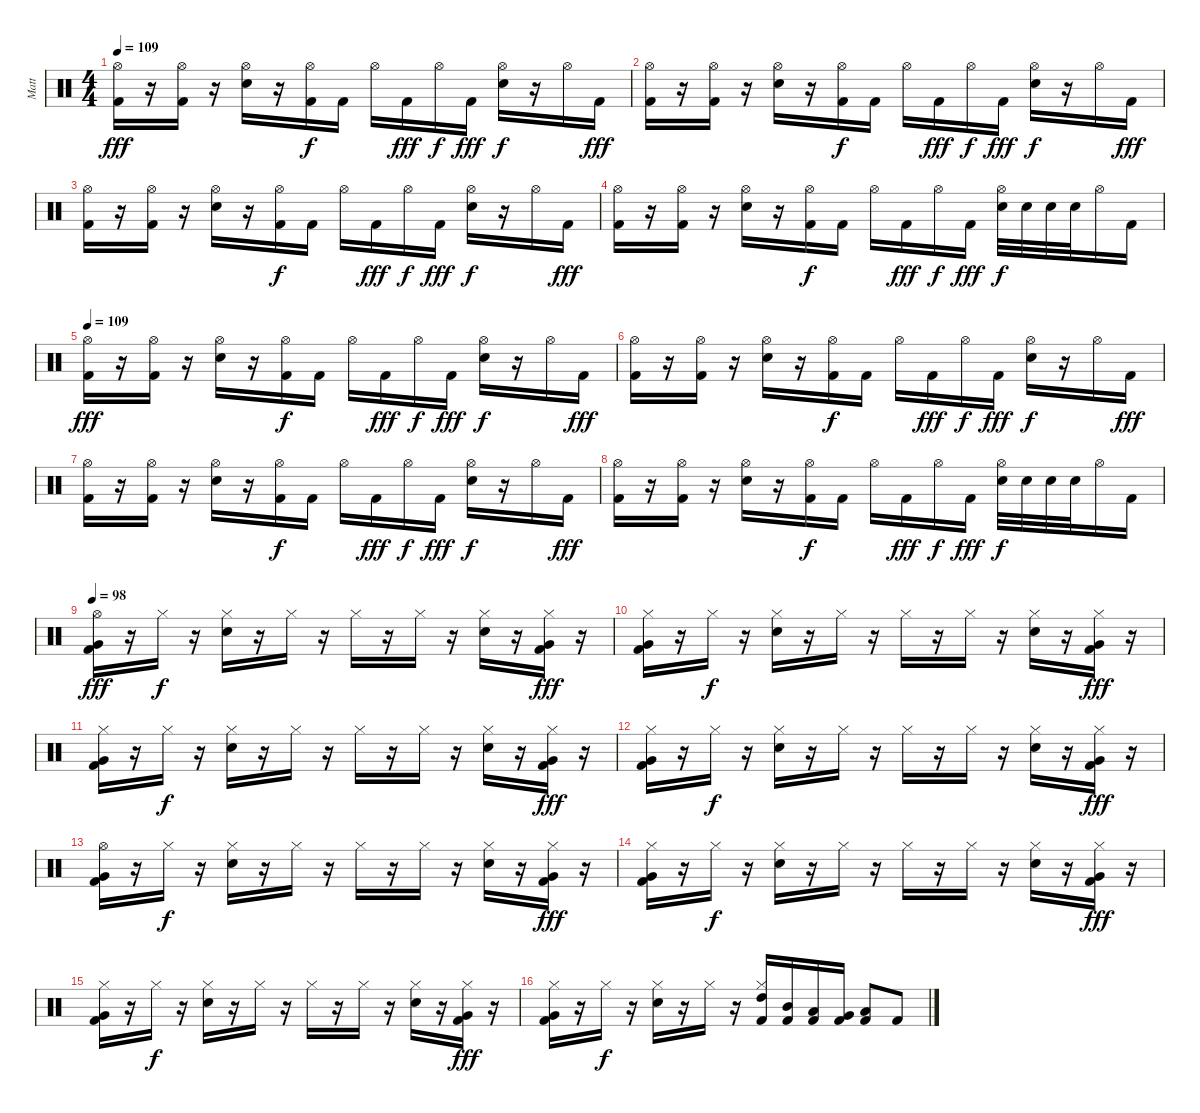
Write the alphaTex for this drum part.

\track ("Matt" "Matt") {instrument percussion}
\staff {score}
\articulation defaults
\ts (4 4)
\tempo 109
\clef neutral
\ks c
("Hi-Hat (open)" "Kick (hit) 2").16{dy fff} r.16 ("Hi-Hat (open)" "Kick (hit) 2").16 r.16 ("Hi-Hat (open)" "Snare (hit) 2").16 r.16 ("Hi-Hat (open)" "Kick (hit) 2").16{dy f} "Kick (hit) 2".16 "Hi-Hat (open)".16 "Kick (hit) 2".16{dy fff} "Hi-Hat (open)".16{dy f} "Kick (hit) 2".16{dy fff} ("Hi-Hat (open)" "Snare (hit) 2").16{dy f} r.16 "Hi-Hat (open)".16 "Kick (hit) 2".16{dy fff} |
("Hi-Hat (open)" "Kick (hit) 2").16 r.16 ("Hi-Hat (open)" "Kick (hit) 2").16 r.16 ("Hi-Hat (open)" "Snare (hit) 2").16 r.16 ("Hi-Hat (open)" "Kick (hit) 2").16{dy f} "Kick (hit) 2".16 "Hi-Hat (open)".16 "Kick (hit) 2".16{dy fff} "Hi-Hat (open)".16{dy f} "Kick (hit) 2".16{dy fff} ("Hi-Hat (open)" "Snare (hit) 2").16{dy f} r.16 "Hi-Hat (open)".16 "Kick (hit) 2".16{dy fff} |
("Hi-Hat (open)" "Kick (hit) 2").16 r.16 ("Hi-Hat (open)" "Kick (hit) 2").16 r.16 ("Hi-Hat (open)" "Snare (hit) 2").16 r.16 ("Hi-Hat (open)" "Kick (hit) 2").16{dy f} "Kick (hit) 2".16 "Hi-Hat (open)".16 "Kick (hit) 2".16{dy fff} "Hi-Hat (open)".16{dy f} "Kick (hit) 2".16{dy fff} ("Hi-Hat (open)" "Snare (hit) 2").16{dy f} r.16 "Hi-Hat (open)".16 "Kick (hit) 2".16{dy fff} |
("Hi-Hat (open)" "Kick (hit) 2").16 r.16 ("Hi-Hat (open)" "Kick (hit) 2").16 r.16 ("Hi-Hat (open)" "Snare (hit) 2").16 r.16 ("Hi-Hat (open)" "Kick (hit) 2").16{dy f} "Kick (hit) 2".16 "Hi-Hat (open)".16 "Kick (hit) 2".16{dy fff} "Hi-Hat (open)".16{dy f} "Kick (hit) 2".16{dy fff} ("Hi-Hat (open)" "Snare (hit) 2").32{dy f} "Snare (hit) 2".32 "Snare (hit) 2".32 "Snare (hit) 2".32 "Hi-Hat (open)".16 "Kick (hit) 2".16 |
\tempo 109
("Hi-Hat (open)" "Kick (hit) 2").16{dy fff} r.16 ("Hi-Hat (open)" "Kick (hit) 2").16 r.16 ("Hi-Hat (open)" "Snare (hit) 2").16 r.16 ("Hi-Hat (open)" "Kick (hit) 2").16{dy f} "Kick (hit) 2".16 "Hi-Hat (open)".16 "Kick (hit) 2".16{dy fff} "Hi-Hat (open)".16{dy f} "Kick (hit) 2".16{dy fff} ("Hi-Hat (open)" "Snare (hit) 2").16{dy f} r.16 "Hi-Hat (open)".16 "Kick (hit) 2".16{dy fff} |
("Hi-Hat (open)" "Kick (hit) 2").16 r.16 ("Hi-Hat (open)" "Kick (hit) 2").16 r.16 ("Hi-Hat (open)" "Snare (hit) 2").16 r.16 ("Hi-Hat (open)" "Kick (hit) 2").16{dy f} "Kick (hit) 2".16 "Hi-Hat (open)".16 "Kick (hit) 2".16{dy fff} "Hi-Hat (open)".16{dy f} "Kick (hit) 2".16{dy fff} ("Hi-Hat (open)" "Snare (hit) 2").16{dy f} r.16 "Hi-Hat (open)".16 "Kick (hit) 2".16{dy fff} |
("Hi-Hat (open)" "Kick (hit) 2").16 r.16 ("Hi-Hat (open)" "Kick (hit) 2").16 r.16 ("Hi-Hat (open)" "Snare (hit) 2").16 r.16 ("Hi-Hat (open)" "Kick (hit) 2").16{dy f} "Kick (hit) 2".16 "Hi-Hat (open)".16 "Kick (hit) 2".16{dy fff} "Hi-Hat (open)".16{dy f} "Kick (hit) 2".16{dy fff} ("Hi-Hat (open)" "Snare (hit) 2").16{dy f} r.16 "Hi-Hat (open)".16 "Kick (hit) 2".16{dy fff} |
("Hi-Hat (open)" "Kick (hit) 2").16 r.16 ("Hi-Hat (open)" "Kick (hit) 2").16 r.16 ("Hi-Hat (open)" "Snare (hit) 2").16 r.16 ("Hi-Hat (open)" "Kick (hit) 2").16{dy f} "Kick (hit) 2".16 "Hi-Hat (open)".16 "Kick (hit) 2".16{dy fff} "Hi-Hat (open)".16{dy f} "Kick (hit) 2".16{dy fff} ("Hi-Hat (open)" "Snare (hit) 2").32{dy f} "Snare (hit) 2".32 "Snare (hit) 2".32 "Snare (hit) 2".32 "Hi-Hat (open)".16 "Kick (hit) 2".16 |
\tempo 98
("Hi-Hat (open)" "Very Low Tom (hit)" "Kick (hit) 2").16{dy fff} r.16 "Hi-Hat (closed)".16{dy f} r.16 ("Hi-Hat (closed)" "Snare (hit) 2").16 r.16 "Hi-Hat (closed)".16 r.16 "Hi-Hat (closed)".16 r.16 "Hi-Hat (closed)".16 r.16 ("Hi-Hat (closed)" "Snare (hit) 2").16 r.16 ("Hi-Hat (closed)" "Very Low Tom (hit)" "Kick (hit) 2").16{dy fff} r.16 |
("Hi-Hat (closed)" "Very Low Tom (hit)" "Kick (hit) 2").16 r.16 "Hi-Hat (closed)".16{dy f} r.16 ("Hi-Hat (closed)" "Snare (hit) 2").16 r.16 "Hi-Hat (closed)".16 r.16 "Hi-Hat (closed)".16 r.16 "Hi-Hat (closed)".16 r.16 ("Hi-Hat (closed)" "Snare (hit) 2").16 r.16 ("Hi-Hat (closed)" "Very Low Tom (hit)" "Kick (hit) 2").16{dy fff} r.16 |
("Hi-Hat (closed)" "Very Low Tom (hit)" "Kick (hit) 2").16 r.16 "Hi-Hat (closed)".16{dy f} r.16 ("Hi-Hat (closed)" "Snare (hit) 2").16 r.16 "Hi-Hat (closed)".16 r.16 "Hi-Hat (closed)".16 r.16 "Hi-Hat (closed)".16 r.16 ("Hi-Hat (closed)" "Snare (hit) 2").16 r.16 ("Hi-Hat (closed)" "Very Low Tom (hit)" "Kick (hit) 2").16{dy fff} r.16 |
("Hi-Hat (closed)" "Very Low Tom (hit)" "Kick (hit) 2").16 r.16 "Hi-Hat (closed)".16{dy f} r.16 ("Hi-Hat (closed)" "Snare (hit) 2").16 r.16 "Hi-Hat (closed)".16 r.16 "Hi-Hat (closed)".16 r.16 "Hi-Hat (closed)".16 r.16 ("Hi-Hat (closed)" "Snare (hit) 2").16 r.16 ("Hi-Hat (closed)" "Very Low Tom (hit)" "Kick (hit) 2").16{dy fff} r.16 |
("Hi-Hat (open)" "Very Low Tom (hit)" "Kick (hit) 2").16 r.16 "Hi-Hat (closed)".16{dy f} r.16 ("Hi-Hat (closed)" "Snare (hit) 2").16 r.16 "Hi-Hat (closed)".16 r.16 "Hi-Hat (closed)".16 r.16 "Hi-Hat (closed)".16 r.16 ("Hi-Hat (closed)" "Snare (hit) 2").16 r.16 ("Hi-Hat (closed)" "Very Low Tom (hit)" "Kick (hit) 2").16{dy fff} r.16 |
("Hi-Hat (closed)" "Very Low Tom (hit)" "Kick (hit) 2").16 r.16 "Hi-Hat (closed)".16{dy f} r.16 ("Hi-Hat (closed)" "Snare (hit) 2").16 r.16 "Hi-Hat (closed)".16 r.16 "Hi-Hat (closed)".16 r.16 "Hi-Hat (closed)".16 r.16 ("Hi-Hat (closed)" "Snare (hit) 2").16 r.16 ("Hi-Hat (closed)" "Very Low Tom (hit)" "Kick (hit) 2").16{dy fff} r.16 |
("Hi-Hat (closed)" "Very Low Tom (hit)" "Kick (hit) 2").16 r.16 "Hi-Hat (closed)".16{dy f} r.16 ("Hi-Hat (closed)" "Snare (hit) 2").16 r.16 "Hi-Hat (closed)".16 r.16 "Hi-Hat (closed)".16 r.16 "Hi-Hat (closed)".16 r.16 ("Hi-Hat (closed)" "Snare (hit) 2").16 r.16 ("Hi-Hat (closed)" "Very Low Tom (hit)" "Kick (hit) 2").16{dy fff} r.16 |
("Hi-Hat (closed)" "Very Low Tom (hit)" "Kick (hit) 2").16 r.16 "Hi-Hat (closed)".16{dy f} r.16 ("Hi-Hat (closed)" "Snare (hit) 2").16 r.16 "Hi-Hat (closed)".16 r.16 ("Hi-Hat (closed)" "High Tom (hit)" "Kick (hit) 2").16 ("Mid Tom (hit)" "Kick (hit) 2").16 ("Low Tom (hit)" "Kick (hit) 2").16 ("Very Low Tom (hit)" "Kick (hit) 2").16 ("Low Floor Tom (hit)" "Kick (hit) 2").8 "Kick (hit) 2".8
